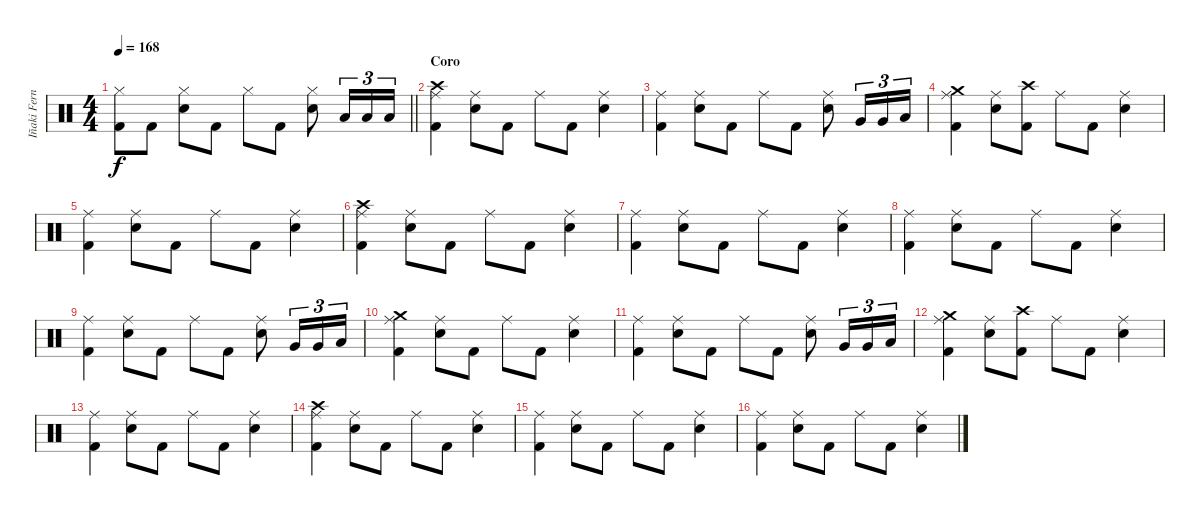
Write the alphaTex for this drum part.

\track ("Iñaki Fernández" "Iñaki Fern") {instrument percussion}
\staff {score}
\articulation defaults
\ts (4 4)
\tempo 168
\clef neutral
\barLineRight lightlight
\ks c
("Hi-Hat (closed)" "Kick (hit) 2").8{dy f} "Kick (hit) 2".8 ("Hi-Hat (closed)" "Snare (hit) 2").8 "Kick (hit) 2".8 "Hi-Hat (closed)".8 "Kick (hit) 2".8 ("Hi-Hat (closed)" "Snare (hit) 2").8 "Low Floor Tom (hit)".16{tu (3 2)} "Low Floor Tom (hit)".16{tu (3 2)} "Low Floor Tom (hit)".16{tu (3 2)} |
\section ("" "Coro")
("Ride (middle)" "Crash high (hit)" "Kick (hit) 2").4 ("Ride (middle)" "Snare (hit) 2").8 "Kick (hit) 2".8 "Ride (middle)".8 "Kick (hit) 2".8 ("Ride (middle)" "Snare (hit) 2").4 |
("Ride (middle)" "Kick (hit) 2").4 ("Ride (middle)" "Snare (hit) 2").8 "Kick (hit) 2".8 "Ride (middle)".8 "Kick (hit) 2".8 ("Ride (middle)" "Snare (hit) 2").8 "Very Low Tom (hit)".16{tu (3 2)} "Very Low Tom (hit)".16{tu (3 2)} "Low Floor Tom (hit)".16{tu (3 2)} |
("Ride (middle)" "Crash medium (hit)" "Kick (hit) 2").4 ("Ride (middle)" "Snare (hit) 2").8 ("Crash high (hit)" "Kick (hit) 2").8 "Ride (middle)".8 "Kick (hit) 2".8 ("Ride (middle)" "Snare (hit) 2").4 |
("Ride (middle)" "Kick (hit) 2").4 ("Ride (middle)" "Snare (hit) 2").8 "Kick (hit) 2".8 "Ride (middle)".8 "Kick (hit) 2".8 ("Ride (middle)" "Snare (hit) 2").4 |
("Ride (middle)" "Crash high (hit)" "Kick (hit) 2").4 ("Ride (middle)" "Snare (hit) 2").8 "Kick (hit) 2".8 "Ride (middle)".8 "Kick (hit) 2".8 ("Ride (middle)" "Snare (hit) 2").4 |
("Ride (middle)" "Kick (hit) 2").4 ("Ride (middle)" "Snare (hit) 2").8 "Kick (hit) 2".8 "Ride (middle)".8 "Kick (hit) 2".8 ("Ride (middle)" "Snare (hit) 2").4 |
("Ride (middle)" "Kick (hit) 2").4 ("Ride (middle)" "Snare (hit) 2").8 "Kick (hit) 2".8 "Ride (middle)".8 "Kick (hit) 2".8 ("Ride (middle)" "Snare (hit) 2").4 |
("Ride (middle)" "Kick (hit) 2").4 ("Ride (middle)" "Snare (hit) 2").8 "Kick (hit) 2".8 "Ride (middle)".8 "Kick (hit) 2".8 ("Ride (middle)" "Snare (hit) 2").8 "Very Low Tom (hit)".16{tu (3 2)} "Very Low Tom (hit)".16{tu (3 2)} "Low Floor Tom (hit)".16{tu (3 2)} |
("Ride (middle)" "Crash medium (hit)" "Kick (hit) 2").4 ("Ride (middle)" "Snare (hit) 2").8 "Kick (hit) 2".8 "Ride (middle)".8 "Kick (hit) 2".8 ("Ride (middle)" "Snare (hit) 2").4 |
("Ride (middle)" "Kick (hit) 2").4 ("Ride (middle)" "Snare (hit) 2").8 "Kick (hit) 2".8 "Ride (middle)".8 "Kick (hit) 2".8 ("Ride (middle)" "Snare (hit) 2").8 "Very Low Tom (hit)".16{tu (3 2)} "Very Low Tom (hit)".16{tu (3 2)} "Low Floor Tom (hit)".16{tu (3 2)} |
("Ride (middle)" "Crash medium (hit)" "Kick (hit) 2").4 ("Ride (middle)" "Snare (hit) 2").8 ("Crash high (hit)" "Kick (hit) 2").8 "Ride (middle)".8 "Kick (hit) 2".8 ("Ride (middle)" "Snare (hit) 2").4 |
("Ride (middle)" "Kick (hit) 2").4 ("Ride (middle)" "Snare (hit) 2").8 "Kick (hit) 2".8 "Ride (middle)".8 "Kick (hit) 2".8 ("Ride (middle)" "Snare (hit) 2").4 |
("Ride (middle)" "Crash high (hit)" "Kick (hit) 2").4 ("Ride (middle)" "Snare (hit) 2").8 "Kick (hit) 2".8 "Ride (middle)".8 "Kick (hit) 2".8 ("Ride (middle)" "Snare (hit) 2").4 |
("Ride (middle)" "Kick (hit) 2").4 ("Ride (middle)" "Snare (hit) 2").8 "Kick (hit) 2".8 "Ride (middle)".8 "Kick (hit) 2".8 ("Ride (middle)" "Snare (hit) 2").4 |
("Ride (middle)" "Kick (hit) 2").4 ("Ride (middle)" "Snare (hit) 2").8 "Kick (hit) 2".8 "Ride (middle)".8 "Kick (hit) 2".8 ("Ride (middle)" "Snare (hit) 2").4
